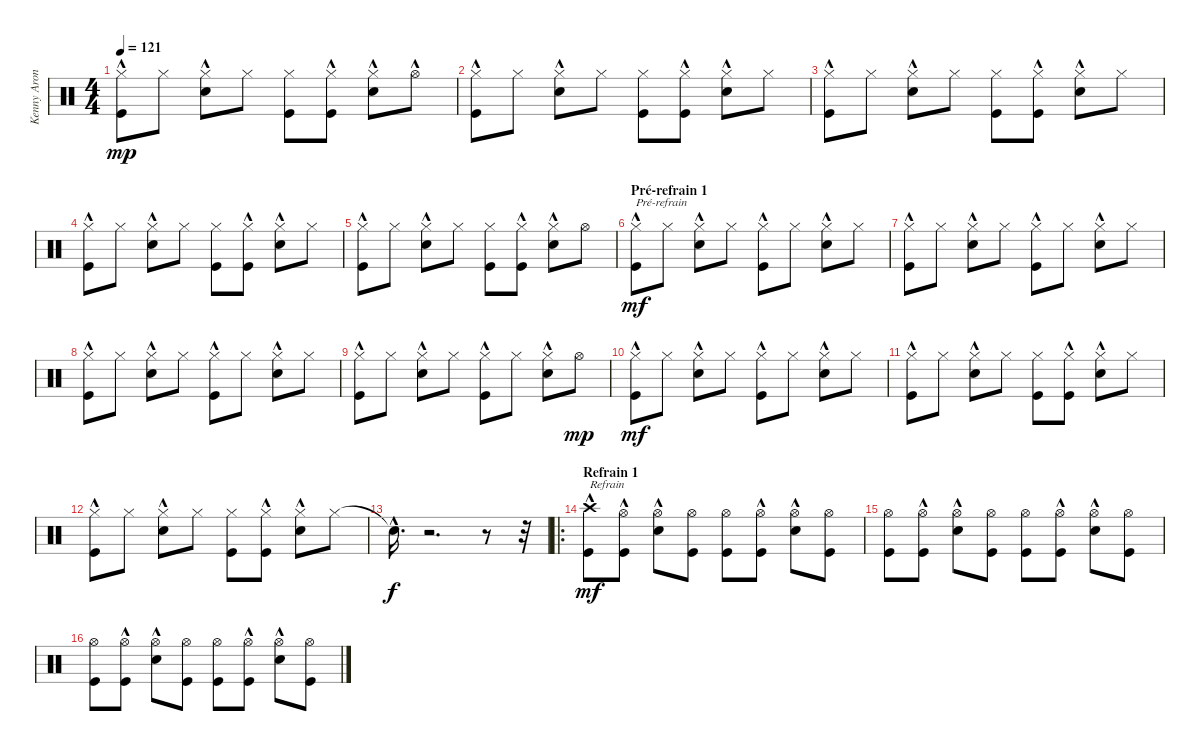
\track ("Kenny Aronoff - Batterie" "Kenny Aron") {instrument percussion}
\staff {score}
\articulation defaults
\ts (4 4)
\tempo 121
\clef neutral
\ks c
("Kick (hit)"{hac} "Hi-Hat (closed)").8{dy mp} "Hi-Hat (closed)".8 ("Snare (hit) 2"{hac} "Hi-Hat (closed)").8 "Hi-Hat (closed)".8 ("Kick (hit)" "Hi-Hat (closed)").8 ("Kick (hit)"{hac} "Hi-Hat (closed)").8 ("Snare (hit) 2"{hac} "Hi-Hat (closed)"{hac}).8 "Hi-Hat (open)"{hac}.8 |
("Kick (hit)"{hac} "Hi-Hat (closed)").8 "Hi-Hat (closed)".8 ("Snare (hit) 2"{hac} "Hi-Hat (closed)").8 "Hi-Hat (closed)".8 ("Kick (hit)" "Hi-Hat (closed)").8 ("Kick (hit)"{hac} "Hi-Hat (closed)").8 ("Snare (hit) 2"{hac} "Hi-Hat (closed)").8 "Hi-Hat (closed)".8 |
("Kick (hit)"{hac} "Hi-Hat (closed)").8 "Hi-Hat (closed)".8 ("Snare (hit) 2"{hac} "Hi-Hat (closed)").8 "Hi-Hat (closed)".8 ("Kick (hit)" "Hi-Hat (closed)").8 ("Kick (hit)"{hac} "Hi-Hat (closed)").8 ("Snare (hit) 2"{hac} "Hi-Hat (closed)").8 "Hi-Hat (closed)".8 |
("Kick (hit)"{hac} "Hi-Hat (closed)").8 "Hi-Hat (closed)".8 ("Snare (hit) 2"{hac} "Hi-Hat (closed)").8 "Hi-Hat (closed)".8 ("Kick (hit)" "Hi-Hat (closed)").8 ("Kick (hit)"{hac} "Hi-Hat (closed)").8 ("Snare (hit) 2"{hac} "Hi-Hat (closed)").8 "Hi-Hat (closed)".8 |
("Kick (hit)"{hac} "Hi-Hat (closed)").8 "Hi-Hat (closed)".8 ("Snare (hit) 2"{hac} "Hi-Hat (closed)").8 "Hi-Hat (closed)".8 ("Kick (hit)" "Hi-Hat (closed)").8 ("Kick (hit)"{hac} "Hi-Hat (closed)").8 ("Snare (hit) 2"{hac} "Hi-Hat (closed)"{hac}).8 "Hi-Hat (open)".8 |
\section ("" "Pré-refrain 1")
("Kick (hit)"{hac} "Hi-Hat (closed)").8{txt "Pré-refrain" dy mf} "Hi-Hat (closed)".8 ("Electric Snare (hit)"{hac} "Hi-Hat (closed)").8 "Hi-Hat (closed)".8 ("Kick (hit)"{hac} "Hi-Hat (closed)").8 "Hi-Hat (closed)".8 ("Electric Snare (hit)"{hac} "Hi-Hat (closed)").8 "Hi-Hat (closed)".8 |
("Kick (hit)"{hac} "Hi-Hat (closed)").8 "Hi-Hat (closed)".8 ("Electric Snare (hit)"{hac} "Hi-Hat (closed)").8 "Hi-Hat (closed)".8 ("Kick (hit)"{hac} "Hi-Hat (closed)").8 "Hi-Hat (closed)".8 ("Electric Snare (hit)"{hac} "Hi-Hat (closed)").8 "Hi-Hat (closed)".8 |
("Kick (hit)"{hac} "Hi-Hat (closed)").8 "Hi-Hat (closed)".8 ("Electric Snare (hit)"{hac} "Hi-Hat (closed)").8 "Hi-Hat (closed)".8 ("Kick (hit)"{hac} "Hi-Hat (closed)").8 "Hi-Hat (closed)".8 ("Electric Snare (hit)"{hac} "Hi-Hat (closed)").8 "Hi-Hat (closed)".8 |
("Kick (hit)"{hac} "Hi-Hat (closed)").8 "Hi-Hat (closed)".8 ("Electric Snare (hit)"{hac} "Hi-Hat (closed)").8 "Hi-Hat (closed)".8 ("Kick (hit)"{hac} "Hi-Hat (closed)").8 "Hi-Hat (closed)".8 ("Electric Snare (hit)"{hac} "Hi-Hat (closed)"{hac}).8 "Hi-Hat (open)".8{dy mp} |
("Kick (hit)"{hac} "Hi-Hat (closed)").8{dy mf} "Hi-Hat (closed)".8 ("Electric Snare (hit)"{hac} "Hi-Hat (closed)").8 "Hi-Hat (closed)".8 ("Kick (hit)"{hac} "Hi-Hat (closed)").8 "Hi-Hat (closed)".8 ("Electric Snare (hit)"{hac} "Hi-Hat (closed)").8 "Hi-Hat (closed)".8 |
("Kick (hit)"{hac} "Hi-Hat (closed)").8 "Hi-Hat (closed)".8 ("Electric Snare (hit)"{hac} "Hi-Hat (closed)").8 "Hi-Hat (closed)".8 ("Kick (hit)" "Hi-Hat (closed)").8 ("Kick (hit)"{hac} "Hi-Hat (closed)").8 ("Electric Snare (hit)"{hac} "Hi-Hat (closed)").8 "Hi-Hat (closed)".8 |
("Kick (hit)"{hac} "Hi-Hat (closed)").8 "Hi-Hat (closed)".8 ("Electric Snare (hit)"{hac} "Hi-Hat (closed)").8 "Hi-Hat (closed)".8 ("Kick (hit)" "Hi-Hat (closed)").8 ("Kick (hit)"{hac} "Hi-Hat (closed)").8 ("Electric Snare (hit)"{hac} "Hi-Hat (closed)").8 "Hi-Hat (closed)".8 |
"Snare (hit)"{hac t}.16{d dy f} r.2{d} r.8 r.32 |
\ro
\section ("" "Refrain 1")
("Kick (hit)" "Crash high (hit)"{hac}).8{txt "Refrain" dy mf} ("Hi-Hat (open)" "Kick (hit)"{hac}).8 ("Electric Snare (hit)"{hac} "Hi-Hat (open)").8 ("Hi-Hat (open)" "Kick (hit)").8 ("Kick (hit)" "Hi-Hat (open)").8 ("Hi-Hat (open)" "Kick (hit)"{hac}).8 ("Electric Snare (hit)"{hac} "Hi-Hat (open)").8 ("Hi-Hat (open)" "Kick (hit)").8 |
("Kick (hit)" "Hi-Hat (open)").8 ("Hi-Hat (open)" "Kick (hit)"{hac}).8 ("Electric Snare (hit)"{hac} "Hi-Hat (open)").8 ("Hi-Hat (open)" "Kick (hit)").8 ("Kick (hit)" "Hi-Hat (open)").8 ("Hi-Hat (open)" "Kick (hit)"{hac}).8 ("Electric Snare (hit)"{hac} "Hi-Hat (open)").8 ("Hi-Hat (open)" "Kick (hit)").8 |
("Kick (hit)" "Hi-Hat (open)").8 ("Hi-Hat (open)" "Kick (hit)"{hac}).8 ("Electric Snare (hit)"{hac} "Hi-Hat (open)").8 ("Hi-Hat (open)" "Kick (hit)").8 ("Kick (hit)" "Hi-Hat (open)").8 ("Hi-Hat (open)" "Kick (hit)"{hac}).8 ("Electric Snare (hit)"{hac} "Hi-Hat (open)").8 ("Hi-Hat (open)" "Kick (hit)").8
